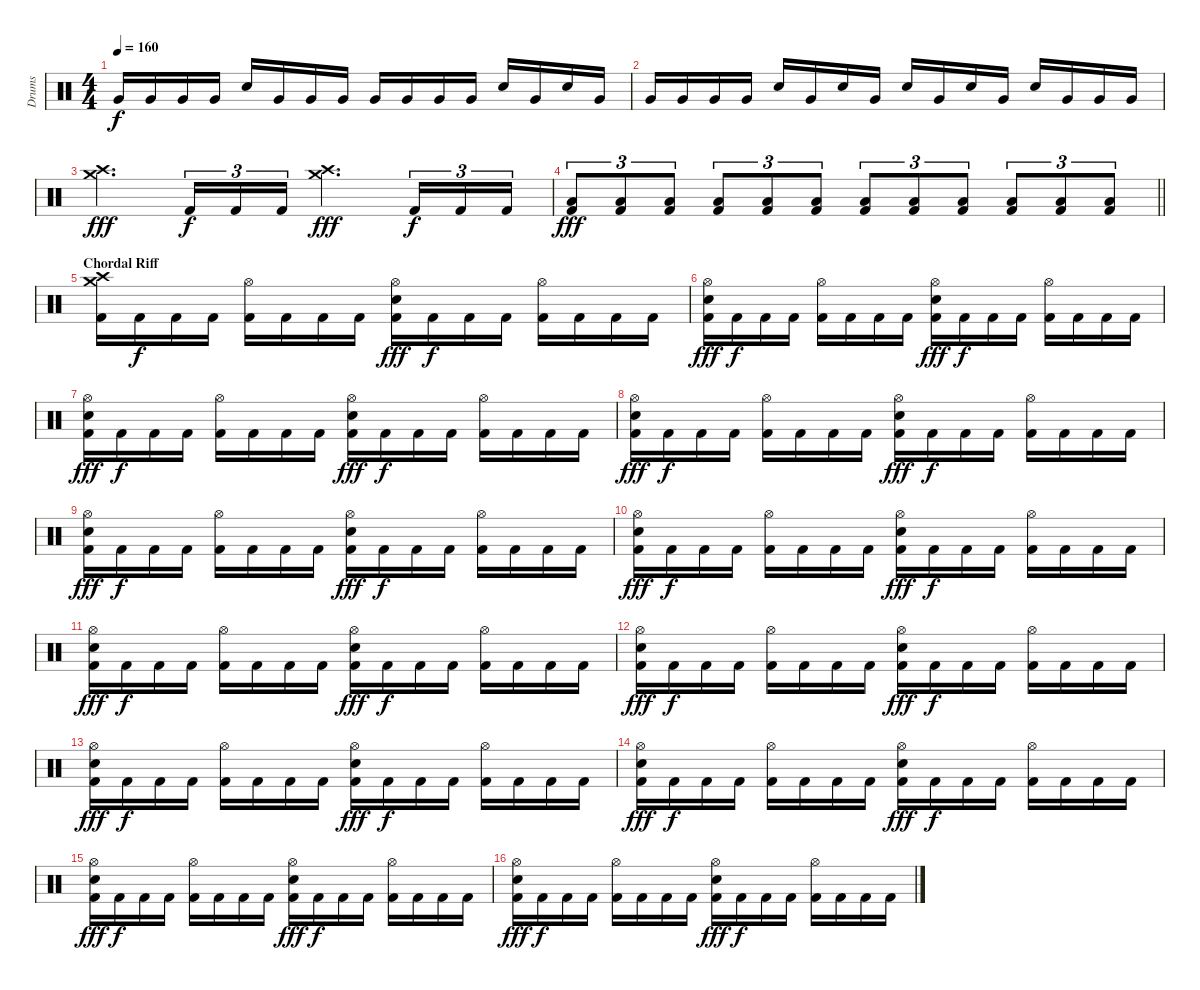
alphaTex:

\track ("Drums" "Drums") {instrument percussion}
\staff {score}
\articulation defaults
\ts (4 4)
\tempo 160
\clef neutral
\ks c "Very Low Tom (hit)".16{dy f} "Very Low Tom (hit)".16 "Very Low Tom (hit)".16 "Very Low Tom (hit)".16 "Electric Snare (hit)".16 "Very Low Tom (hit)".16 "Very Low Tom (hit)".16 "Very Low Tom (hit)".16 "Very Low Tom (hit)".16 "Very Low Tom (hit)".16 "Very Low Tom (hit)".16 "Very Low Tom (hit)".16 "Electric Snare (hit)".16 "Very Low Tom (hit)".16 "Electric Snare (hit)".16 "Very Low Tom (hit)".16
|
"Very Low Tom (hit)".16 "Very Low Tom (hit)".16 "Very Low Tom (hit)".16 "Very Low Tom (hit)".16 "Electric Snare (hit)".16 "Very Low Tom (hit)".16 "Electric Snare (hit)".16 "Very Low Tom (hit)".16 "Electric Snare (hit)".16 "Very Low Tom (hit)".16 "Electric Snare (hit)".16 "Very Low Tom (hit)".16 "Electric Snare (hit)".16 "Very Low Tom (hit)".16 "Very Low Tom (hit)".16 "Very Low Tom (hit)".16 |
("Crash high (hit)" "Crash medium (hit)").4{d dy fff} "Kick (hit) 2".16{tu (3 2) dy f} "Kick (hit) 2".16{tu (3 2)} "Kick (hit) 2".16{tu (3 2)} ("Crash high (hit)" "Crash medium (hit)").4{d dy fff} "Kick (hit) 2".16{tu (3 2) dy f} "Kick (hit) 2".16{tu (3 2)} "Kick (hit) 2".16{tu (3 2)} |
\barLineRight lightlight
("Low Tom (hit)" "Kick (hit) 2").8{tu (3 2) dy fff} ("Low Tom (hit)" "Kick (hit) 2").8{tu (3 2)} ("Low Tom (hit)" "Kick (hit) 2").8{tu (3 2)} ("Low Tom (hit)" "Kick (hit) 2").8{tu (3 2)} ("Low Tom (hit)" "Kick (hit) 2").8{tu (3 2)} ("Low Tom (hit)" "Kick (hit) 2").8{tu (3 2)} ("Low Tom (hit)" "Kick (hit) 2").8{tu (3 2)} ("Low Tom (hit)" "Kick (hit) 2").8{tu (3 2)} ("Low Tom (hit)" "Kick (hit) 2").8{tu (3 2)} ("Low Tom (hit)" "Kick (hit) 2").8{tu (3 2)} ("Low Tom (hit)" "Kick (hit) 2").8{tu (3 2)} ("Low Tom (hit)" "Kick (hit) 2").8{tu (3 2)} |
\section ("" "Chordal Riff")
("Crash high (hit)" "Crash medium (hit)" "Kick (hit) 2").16 "Kick (hit) 2".16{dy f} "Kick (hit) 2".16 "Kick (hit) 2".16 ("Hi-Hat (open)" "Kick (hit) 2").16 "Kick (hit) 2".16 "Kick (hit) 2".16 "Kick (hit) 2".16 ("Hi-Hat (open)" "Electric Snare (hit)" "Kick (hit) 2").16{dy fff} "Kick (hit) 2".16{dy f} "Kick (hit) 2".16 "Kick (hit) 2".16 ("Hi-Hat (open)" "Kick (hit) 2").16 "Kick (hit) 2".16 "Kick (hit) 2".16 "Kick (hit) 2".16 |
("Hi-Hat (open)" "Electric Snare (hit)" "Kick (hit) 2").16{dy fff} "Kick (hit) 2".16{dy f} "Kick (hit) 2".16 "Kick (hit) 2".16 ("Hi-Hat (open)" "Kick (hit) 2").16 "Kick (hit) 2".16 "Kick (hit) 2".16 "Kick (hit) 2".16 ("Hi-Hat (open)" "Electric Snare (hit)" "Kick (hit) 2").16{dy fff} "Kick (hit) 2".16{dy f} "Kick (hit) 2".16 "Kick (hit) 2".16 ("Hi-Hat (open)" "Kick (hit) 2").16 "Kick (hit) 2".16 "Kick (hit) 2".16 "Kick (hit) 2".16 |
("Hi-Hat (open)" "Electric Snare (hit)" "Kick (hit) 2").16{dy fff} "Kick (hit) 2".16{dy f} "Kick (hit) 2".16 "Kick (hit) 2".16 ("Hi-Hat (open)" "Kick (hit) 2").16 "Kick (hit) 2".16 "Kick (hit) 2".16 "Kick (hit) 2".16 ("Hi-Hat (open)" "Electric Snare (hit)" "Kick (hit) 2").16{dy fff} "Kick (hit) 2".16{dy f} "Kick (hit) 2".16 "Kick (hit) 2".16 ("Hi-Hat (open)" "Kick (hit) 2").16 "Kick (hit) 2".16 "Kick (hit) 2".16 "Kick (hit) 2".16 |
("Hi-Hat (open)" "Electric Snare (hit)" "Kick (hit) 2").16{dy fff} "Kick (hit) 2".16{dy f} "Kick (hit) 2".16 "Kick (hit) 2".16 ("Hi-Hat (open)" "Kick (hit) 2").16 "Kick (hit) 2".16 "Kick (hit) 2".16 "Kick (hit) 2".16 ("Hi-Hat (open)" "Electric Snare (hit)" "Kick (hit) 2").16{dy fff} "Kick (hit) 2".16{dy f} "Kick (hit) 2".16 "Kick (hit) 2".16 ("Hi-Hat (open)" "Kick (hit) 2").16 "Kick (hit) 2".16 "Kick (hit) 2".16 "Kick (hit) 2".16 |
("Hi-Hat (open)" "Electric Snare (hit)" "Kick (hit) 2").16{dy fff} "Kick (hit) 2".16{dy f} "Kick (hit) 2".16 "Kick (hit) 2".16 ("Hi-Hat (open)" "Kick (hit) 2").16 "Kick (hit) 2".16 "Kick (hit) 2".16 "Kick (hit) 2".16 ("Hi-Hat (open)" "Electric Snare (hit)" "Kick (hit) 2").16{dy fff} "Kick (hit) 2".16{dy f} "Kick (hit) 2".16 "Kick (hit) 2".16 ("Hi-Hat (open)" "Kick (hit) 2").16 "Kick (hit) 2".16 "Kick (hit) 2".16 "Kick (hit) 2".16 |
("Hi-Hat (open)" "Electric Snare (hit)" "Kick (hit) 2").16{dy fff} "Kick (hit) 2".16{dy f} "Kick (hit) 2".16 "Kick (hit) 2".16 ("Hi-Hat (open)" "Kick (hit) 2").16 "Kick (hit) 2".16 "Kick (hit) 2".16 "Kick (hit) 2".16 ("Hi-Hat (open)" "Electric Snare (hit)" "Kick (hit) 2").16{dy fff} "Kick (hit) 2".16{dy f} "Kick (hit) 2".16 "Kick (hit) 2".16 ("Hi-Hat (open)" "Kick (hit) 2").16 "Kick (hit) 2".16 "Kick (hit) 2".16 "Kick (hit) 2".16 |
("Hi-Hat (open)" "Electric Snare (hit)" "Kick (hit) 2").16{dy fff} "Kick (hit) 2".16{dy f} "Kick (hit) 2".16 "Kick (hit) 2".16 ("Hi-Hat (open)" "Kick (hit) 2").16 "Kick (hit) 2".16 "Kick (hit) 2".16 "Kick (hit) 2".16 ("Hi-Hat (open)" "Electric Snare (hit)" "Kick (hit) 2").16{dy fff} "Kick (hit) 2".16{dy f} "Kick (hit) 2".16 "Kick (hit) 2".16 ("Hi-Hat (open)" "Kick (hit) 2").16 "Kick (hit) 2".16 "Kick (hit) 2".16 "Kick (hit) 2".16 |
("Hi-Hat (open)" "Electric Snare (hit)" "Kick (hit) 2").16{dy fff} "Kick (hit) 2".16{dy f} "Kick (hit) 2".16 "Kick (hit) 2".16 ("Hi-Hat (open)" "Kick (hit) 2").16 "Kick (hit) 2".16 "Kick (hit) 2".16 "Kick (hit) 2".16 ("Hi-Hat (open)" "Electric Snare (hit)" "Kick (hit) 2").16{dy fff} "Kick (hit) 2".16{dy f} "Kick (hit) 2".16 "Kick (hit) 2".16 ("Hi-Hat (open)" "Kick (hit) 2").16 "Kick (hit) 2".16 "Kick (hit) 2".16 "Kick (hit) 2".16 |
("Hi-Hat (open)" "Electric Snare (hit)" "Kick (hit) 2").16{dy fff} "Kick (hit) 2".16{dy f} "Kick (hit) 2".16 "Kick (hit) 2".16 ("Hi-Hat (open)" "Kick (hit) 2").16 "Kick (hit) 2".16 "Kick (hit) 2".16 "Kick (hit) 2".16 ("Hi-Hat (open)" "Electric Snare (hit)" "Kick (hit) 2").16{dy fff} "Kick (hit) 2".16{dy f} "Kick (hit) 2".16 "Kick (hit) 2".16 ("Hi-Hat (open)" "Kick (hit) 2").16 "Kick (hit) 2".16 "Kick (hit) 2".16 "Kick (hit) 2".16 |
("Hi-Hat (open)" "Electric Snare (hit)" "Kick (hit) 2").16{dy fff} "Kick (hit) 2".16{dy f} "Kick (hit) 2".16 "Kick (hit) 2".16 ("Hi-Hat (open)" "Kick (hit) 2").16 "Kick (hit) 2".16 "Kick (hit) 2".16 "Kick (hit) 2".16 ("Hi-Hat (open)" "Electric Snare (hit)" "Kick (hit) 2").16{dy fff} "Kick (hit) 2".16{dy f} "Kick (hit) 2".16 "Kick (hit) 2".16 ("Hi-Hat (open)" "Kick (hit) 2").16 "Kick (hit) 2".16 "Kick (hit) 2".16 "Kick (hit) 2".16 |
("Hi-Hat (open)" "Electric Snare (hit)" "Kick (hit) 2").16{dy fff} "Kick (hit) 2".16{dy f} "Kick (hit) 2".16 "Kick (hit) 2".16 ("Hi-Hat (open)" "Kick (hit) 2").16 "Kick (hit) 2".16 "Kick (hit) 2".16 "Kick (hit) 2".16 ("Hi-Hat (open)" "Electric Snare (hit)" "Kick (hit) 2").16{dy fff} "Kick (hit) 2".16{dy f} "Kick (hit) 2".16 "Kick (hit) 2".16 ("Hi-Hat (open)" "Kick (hit) 2").16 "Kick (hit) 2".16 "Kick (hit) 2".16 "Kick (hit) 2".16 |
("Hi-Hat (open)" "Electric Snare (hit)" "Kick (hit) 2").16{dy fff} "Kick (hit) 2".16{dy f} "Kick (hit) 2".16 "Kick (hit) 2".16 ("Hi-Hat (open)" "Kick (hit) 2").16 "Kick (hit) 2".16 "Kick (hit) 2".16 "Kick (hit) 2".16 ("Hi-Hat (open)" "Electric Snare (hit)" "Kick (hit) 2").16{dy fff} "Kick (hit) 2".16{dy f} "Kick (hit) 2".16 "Kick (hit) 2".16 ("Hi-Hat (open)" "Kick (hit) 2").16 "Kick (hit) 2".16 "Kick (hit) 2".16 "Kick (hit) 2".16
